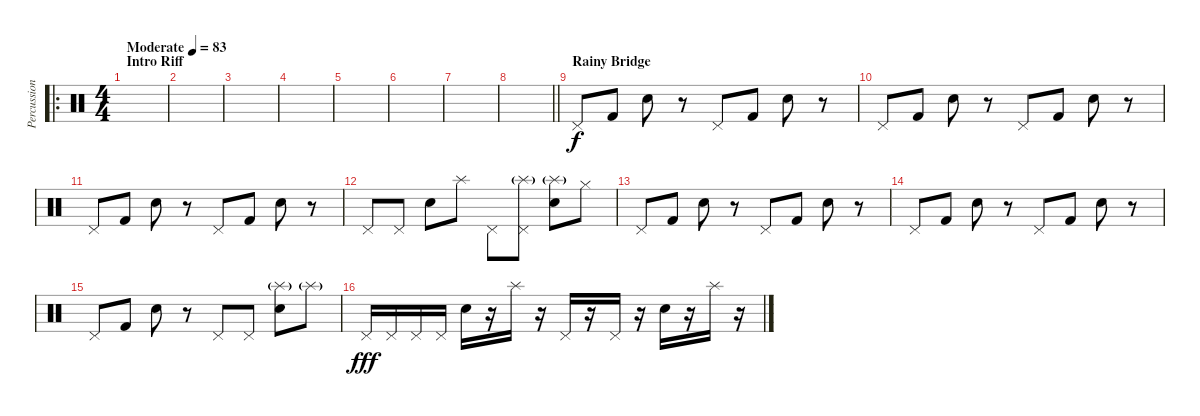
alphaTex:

\track ("Percussion" "Percussion") {instrument percussion}
\staff {score}
\articulation defaults
\ro
\ts (4 4)
\section ("" "Intro Riff")
\tempo (83 "Moderate")
\clef neutral
\ks c
|
|
|
|
|
|
|
\barLineRight lightlight
|
\section ("" "Rainy Bridge")
"Pedal Hi-Hat (hit)".8 "Kick (hit) 2".8 "Hand Clap (hit)".8 r.8 "Pedal Hi-Hat (hit)".8 "Kick (hit) 2".8 "Hand Clap (hit)".8 r.8 |
"Pedal Hi-Hat (hit)".8 "Kick (hit) 2".8 "Hand Clap (hit)".8 r.8 "Pedal Hi-Hat (hit)".8 "Kick (hit) 2".8 "Hand Clap (hit)".8 r.8 |
"Pedal Hi-Hat (hit)".8 "Kick (hit) 2".8 "Hand Clap (hit)".8 r.8 "Pedal Hi-Hat (hit)".8 "Kick (hit) 2".8 "Hand Clap (hit)".8 r.8 |
"Pedal Hi-Hat (hit)".8 "Pedal Hi-Hat (hit)".8 "Hand Clap (hit)".8 "Splash (hit)".8 "Pedal Hi-Hat (hit)".8 ("Pedal Hi-Hat (hit)" "Splash (hit)"{g}).8 ("Hand Clap (hit)" "Splash (hit)"{g}).8 "Hi-Hat (closed)".8 |
"Pedal Hi-Hat (hit)".8 "Kick (hit) 2".8 "Hand Clap (hit)".8 r.8 "Pedal Hi-Hat (hit)".8 "Kick (hit) 2".8 "Hand Clap (hit)".8 r.8 |
"Pedal Hi-Hat (hit)".8 "Kick (hit) 2".8 "Hand Clap (hit)".8 r.8 "Pedal Hi-Hat (hit)".8 "Kick (hit) 2".8 "Hand Clap (hit)".8 r.8 |
"Pedal Hi-Hat (hit)".8 "Kick (hit) 2".8 "Hand Clap (hit)".8 r.8 "Pedal Hi-Hat (hit)".8 "Pedal Hi-Hat (hit)".8 ("Hand Clap (hit)" "Splash (hit)"{g}).8 "Splash (hit)"{g}.8{dy f} |
"Pedal Hi-Hat (hit)".16{dy fff} "Pedal Hi-Hat (hit)".16 "Pedal Hi-Hat (hit)".16 "Pedal Hi-Hat (hit)".16 "Hand Clap (hit)".16 r.16 "Splash (hit)".16 r.16 "Pedal Hi-Hat (hit)".16 r.16 "Pedal Hi-Hat (hit)".16 r.16 "Hand Clap (hit)".16 r.16 "Splash (hit)".16 r.16
